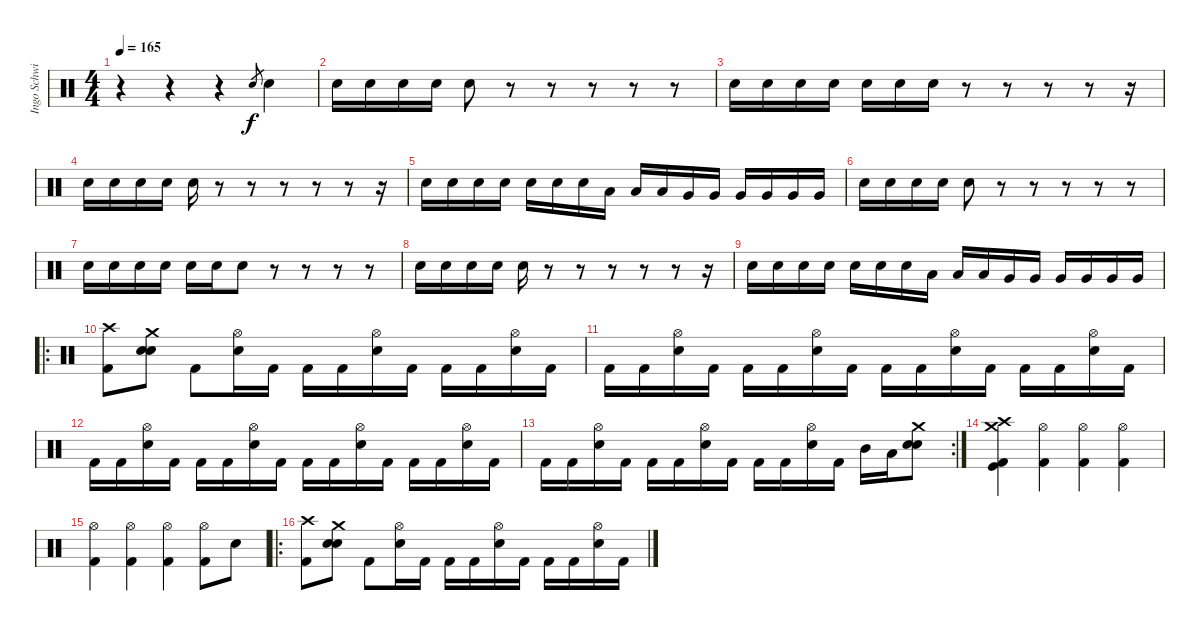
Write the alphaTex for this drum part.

\track ("Ingo Schwischtenberg" "Ingo Schwi") {instrument percussion}
\staff {score}
\articulation defaults
\ts (4 4)
\tempo 165
\clef neutral
\ks c
r.4{dy f} r.4 r.4 "Snare (hit) 2".8{gr} "Snare (hit) 2".4 |
"Snare (hit) 2".16 "Snare (hit) 2".16 "Snare (hit) 2".16 "Snare (hit) 2".16 "Snare (hit) 2".8 r.8 r.8 r.8 r.8 r.8 |
"Snare (hit) 2".16 "Snare (hit) 2".16 "Snare (hit) 2".16 "Snare (hit) 2".16 "Snare (hit) 2".16 "Snare (hit) 2".16 "Snare (hit) 2".16 r.8 r.8 r.8 r.8 r.16 |
"Snare (hit) 2".16 "Snare (hit) 2".16 "Snare (hit) 2".16 "Snare (hit) 2".16 "Snare (hit) 2".16 r.8 r.8 r.8 r.8 r.8 r.16 |
"Snare (hit) 2".16 "Snare (hit) 2".16 "Snare (hit) 2".16 "Snare (hit) 2".16 "Snare (hit) 2".16 "Snare (hit) 2".16 "Snare (hit) 2".16 "Low Tom (hit)".16 "Low Tom (hit)".16 "Low Tom (hit)".16 "Very Low Tom (hit)".16 "Very Low Tom (hit)".16 "Very Low Tom (hit)".16 "Very Low Tom (hit)".16 "Very Low Tom (hit)".16 "Very Low Tom (hit)".16 |
"Snare (hit) 2".16 "Snare (hit) 2".16 "Snare (hit) 2".16 "Snare (hit) 2".16 "Snare (hit) 2".8 r.8 r.8 r.8 r.8 r.8 |
"Snare (hit) 2".16 "Snare (hit) 2".16 "Snare (hit) 2".16 "Snare (hit) 2".16 "Snare (hit) 2".16 "Snare (hit) 2".16 "Snare (hit) 2".8 r.8 r.8 r.8 r.8 |
"Snare (hit) 2".16 "Snare (hit) 2".16 "Snare (hit) 2".16 "Snare (hit) 2".16 "Snare (hit) 2".16 r.8 r.8 r.8 r.8 r.8 r.16 |
"Snare (hit) 2".16 "Snare (hit) 2".16 "Snare (hit) 2".16 "Snare (hit) 2".16 "Snare (hit) 2".16 "Snare (hit) 2".16 "Snare (hit) 2".16 "Low Tom (hit)".16 "Low Tom (hit)".16 "Low Tom (hit)".16 "Very Low Tom (hit)".16 "Very Low Tom (hit)".16 "Very Low Tom (hit)".16 "Very Low Tom (hit)".16 "Very Low Tom (hit)".16 "Very Low Tom (hit)".16 |
\ro
("Crash high (hit)" "Kick (hit) 2").8 ("Crash medium (hit)" "Snare (hit) 2" "Electric Snare (hit)").8 "Kick (hit) 2".8 ("Hi-Hat (open)" "Snare (hit) 2").16 "Kick (hit) 2".16 "Kick (hit) 2".16 "Kick (hit) 2".16 ("Hi-Hat (open)" "Snare (hit) 2").16 "Kick (hit) 2".16 "Kick (hit) 2".16 "Kick (hit) 2".16 ("Hi-Hat (open)" "Snare (hit) 2").16 "Kick (hit) 2".16 |
"Kick (hit) 2".16 "Kick (hit) 2".16 ("Hi-Hat (open)" "Snare (hit) 2").16 "Kick (hit) 2".16 "Kick (hit) 2".16 "Kick (hit) 2".16 ("Hi-Hat (open)" "Snare (hit) 2").16 "Kick (hit) 2".16 "Kick (hit) 2".16 "Kick (hit) 2".16 ("Hi-Hat (open)" "Snare (hit) 2").16 "Kick (hit) 2".16 "Kick (hit) 2".16 "Kick (hit) 2".16 ("Hi-Hat (open)" "Snare (hit) 2").16 "Kick (hit) 2".16 |
"Kick (hit) 2".16 "Kick (hit) 2".16 ("Hi-Hat (open)" "Snare (hit) 2").16 "Kick (hit) 2".16 "Kick (hit) 2".16 "Kick (hit) 2".16 ("Hi-Hat (open)" "Snare (hit) 2").16 "Kick (hit) 2".16 "Kick (hit) 2".16 "Kick (hit) 2".16 ("Hi-Hat (open)" "Snare (hit) 2").16 "Kick (hit) 2".16 "Kick (hit) 2".16 "Kick (hit) 2".16 ("Hi-Hat (open)" "Snare (hit) 2").16 "Kick (hit) 2".16 |
\rc 2 "Kick (hit) 2".16 "Kick (hit) 2".16
("Hi-Hat (open)" "Snare (hit) 2").16 "Kick (hit) 2".16 "Kick (hit) 2".16 "Kick (hit) 2".16 ("Hi-Hat (open)" "Snare (hit) 2").16 "Kick (hit) 2".16 "Kick (hit) 2".16 "Kick (hit) 2".16 ("Hi-Hat (open)" "Snare (hit) 2").16 "Kick (hit) 2".16 "Mid Tom (hit)".16 "Low Tom (hit)".16 ("Crash medium (hit)" "Snare (hit) 2" "Electric Snare (hit)").8 |
("Crash high (hit)" "Crash medium (hit)" "Kick (hit)" "Kick (hit) 2").4 ("Hi-Hat (open)" "Kick (hit) 2").4 ("Hi-Hat (open)" "Kick (hit) 2").4 ("Hi-Hat (open)" "Kick (hit) 2").4 |
("Hi-Hat (open)" "Kick (hit) 2").4 ("Hi-Hat (open)" "Kick (hit) 2").4 ("Hi-Hat (open)" "Kick (hit) 2").4 ("Hi-Hat (open)" "Kick (hit) 2").8 "Electric Snare (hit)".8 |
\ro
("Crash high (hit)" "Kick (hit) 2").8 ("Crash medium (hit)" "Snare (hit) 2" "Electric Snare (hit)").8 "Kick (hit) 2".8 ("Hi-Hat (open)" "Snare (hit) 2").16 "Kick (hit) 2".16 "Kick (hit) 2".16 "Kick (hit) 2".16 ("Hi-Hat (open)" "Snare (hit) 2").16 "Kick (hit) 2".16 "Kick (hit) 2".16 "Kick (hit) 2".16 ("Hi-Hat (open)" "Snare (hit) 2").16 "Kick (hit) 2".16
